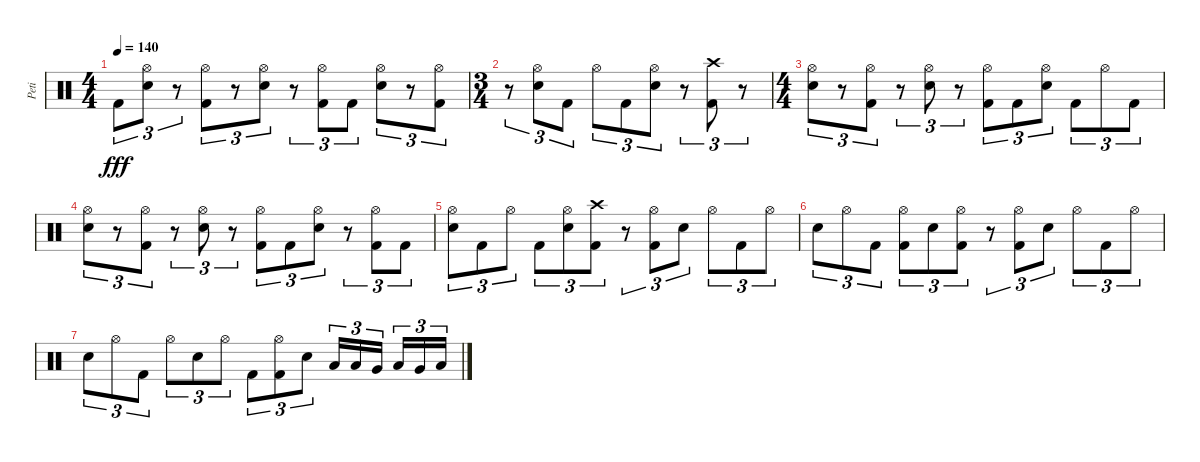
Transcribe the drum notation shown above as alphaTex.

\track ("Peti" "Peti") {instrument percussion}
\staff {score}
\articulation defaults
\ts (4 4)
\tempo 140
\clef neutral
\ks c "Kick (hit) 2".8{tu (3 2) dy fff}
("Hi-Hat (open)" "Snare (hit) 2").8{tu (3 2)} r.8{tu (3 2)} ("Hi-Hat (open)" "Kick (hit) 2").8{tu (3 2)} r.8{tu (3 2)} ("Hi-Hat (open)" "Snare (hit) 2").8{tu (3 2)} r.8{tu (3 2)} ("Hi-Hat (open)" "Kick (hit) 2").8{tu (3 2)} "Kick (hit) 2".8{tu (3 2)} ("Hi-Hat (open)" "Snare (hit) 2").8{tu (3 2)} r.8{tu (3 2)} ("Hi-Hat (open)" "Kick (hit) 2").8{tu (3 2)} |
\ts (3 4)
r.8{tu (3 2)} ("Hi-Hat (open)" "Snare (hit) 2").8{tu (3 2)} "Kick (hit) 2".8{tu (3 2)} "Hi-Hat (open)".8{tu (3 2)} "Kick (hit) 2".8{tu (3 2)} ("Hi-Hat (open)" "Snare (hit) 2").8{tu (3 2)} r.8{tu (3 2)} ("Crash high (hit)" "Kick (hit) 2").8{tu (3 2)} r.8{tu (3 2)} |
\ts (4 4)
("Hi-Hat (open)" "Snare (hit) 2").8{tu (3 2)} r.8{tu (3 2)} ("Hi-Hat (open)" "Kick (hit) 2").8{tu (3 2)} r.8{tu (3 2)} ("Hi-Hat (open)" "Snare (hit) 2").8{tu (3 2)} r.8{tu (3 2)} ("Hi-Hat (open)" "Kick (hit) 2").8{tu (3 2)} "Kick (hit) 2".8{tu (3 2)} ("Hi-Hat (open)" "Snare (hit) 2").8{tu (3 2)} "Kick (hit) 2".8{tu (3 2)} "Hi-Hat (open)".8{tu (3 2)} "Kick (hit) 2".8{tu (3 2)} |
("Hi-Hat (open)" "Snare (hit) 2").8{tu (3 2)} r.8{tu (3 2)} ("Hi-Hat (open)" "Kick (hit) 2").8{tu (3 2)} r.8{tu (3 2)} ("Hi-Hat (open)" "Snare (hit) 2").8{tu (3 2)} r.8{tu (3 2)} ("Hi-Hat (open)" "Kick (hit) 2").8{tu (3 2)} "Kick (hit) 2".8{tu (3 2)} ("Hi-Hat (open)" "Snare (hit) 2").8{tu (3 2)} r.8{tu (3 2)} ("Hi-Hat (open)" "Kick (hit) 2").8{tu (3 2)} "Kick (hit) 2".8{tu (3 2)} |
("Hi-Hat (open)" "Snare (hit) 2").8{tu (3 2)} "Kick (hit) 2".8{tu (3 2)} "Hi-Hat (open)".8{tu (3 2)} "Kick (hit) 2".8{tu (3 2)} ("Hi-Hat (open)" "Snare (hit) 2").8{tu (3 2)} ("Crash high (hit)" "Kick (hit) 2").8{tu (3 2)} r.8{tu (3 2)} ("Hi-Hat (open)" "Kick (hit) 2").8{tu (3 2)} "Snare (hit) 2".8{tu (3 2)} "Hi-Hat (open)".8{tu (3 2)} "Kick (hit) 2".8{tu (3 2)} "Hi-Hat (open)".8{tu (3 2)} |
"Snare (hit) 2".8{tu (3 2)} "Hi-Hat (open)".8{tu (3 2)} "Kick (hit) 2".8{tu (3 2)} ("Hi-Hat (open)" "Kick (hit) 2").8{tu (3 2)} "Snare (hit) 2".8{tu (3 2)} ("Hi-Hat (open)" "Kick (hit) 2").8{tu (3 2)} r.8{tu (3 2)} ("Hi-Hat (open)" "Kick (hit) 2").8{tu (3 2)} "Snare (hit) 2".8{tu (3 2)} "Hi-Hat (open)".8{tu (3 2)} "Kick (hit) 2".8{tu (3 2)} "Hi-Hat (open)".8{tu (3 2)} |
"Snare (hit) 2".8{tu (3 2)} "Hi-Hat (open)".8{tu (3 2)} "Kick (hit) 2".8{tu (3 2)} "Hi-Hat (open)".8{tu (3 2)} "Snare (hit) 2".8{tu (3 2)} "Hi-Hat (open)".8{tu (3 2)} "Kick (hit) 2".8{tu (3 2)} ("Hi-Hat (open)" "Kick (hit) 2").8{tu (3 2)} "Snare (hit) 2".8{tu (3 2)} "Low Tom (hit)".16{tu (3 2)} "Low Tom (hit)".16{tu (3 2)} "Very Low Tom (hit)".16{tu (3 2)} "Low Tom (hit)".16{tu (3 2)} "Very Low Tom (hit)".16{tu (3 2)} "Low Floor Tom (hit)".16{tu (3 2)}
